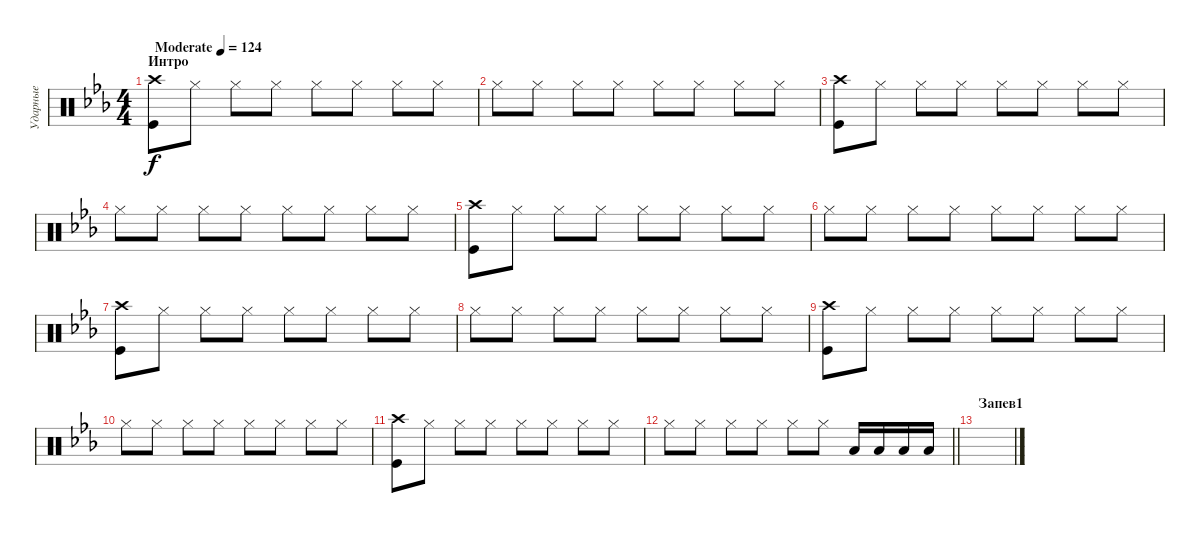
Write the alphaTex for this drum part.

\track ("Ударные" "Ударные") {instrument percussion}
\staff {score}
\articulation defaults
\ts (4 4)
\section ("" "Интро")
\tempo (124 "Moderate")
\clef neutral
\ks cminor
("Crash high (hit)" "Kick (hit)").8{dy f} "Hi-Hat (closed)".8 "Hi-Hat (closed)".8 "Hi-Hat (closed)".8 "Hi-Hat (closed)".8 "Hi-Hat (closed)".8 "Hi-Hat (closed)".8 "Hi-Hat (closed)".8 |
"Hi-Hat (closed)".8 "Hi-Hat (closed)".8 "Hi-Hat (closed)".8 "Hi-Hat (closed)".8 "Hi-Hat (closed)".8 "Hi-Hat (closed)".8 "Hi-Hat (closed)".8 "Hi-Hat (closed)".8 |
("Crash high (hit)" "Kick (hit)").8 "Hi-Hat (closed)".8 "Hi-Hat (closed)".8 "Hi-Hat (closed)".8 "Hi-Hat (closed)".8 "Hi-Hat (closed)".8 "Hi-Hat (closed)".8 "Hi-Hat (closed)".8 |
"Hi-Hat (closed)".8 "Hi-Hat (closed)".8 "Hi-Hat (closed)".8 "Hi-Hat (closed)".8 "Hi-Hat (closed)".8 "Hi-Hat (closed)".8 "Hi-Hat (closed)".8 "Hi-Hat (closed)".8 |
("Crash high (hit)" "Kick (hit)").8 "Hi-Hat (closed)".8 "Hi-Hat (closed)".8 "Hi-Hat (closed)".8 "Hi-Hat (closed)".8 "Hi-Hat (closed)".8 "Hi-Hat (closed)".8 "Hi-Hat (closed)".8 |
"Hi-Hat (closed)".8 "Hi-Hat (closed)".8 "Hi-Hat (closed)".8 "Hi-Hat (closed)".8 "Hi-Hat (closed)".8 "Hi-Hat (closed)".8 "Hi-Hat (closed)".8 "Hi-Hat (closed)".8 |
("Crash high (hit)" "Kick (hit)").8 "Hi-Hat (closed)".8 "Hi-Hat (closed)".8 "Hi-Hat (closed)".8 "Hi-Hat (closed)".8 "Hi-Hat (closed)".8 "Hi-Hat (closed)".8 "Hi-Hat (closed)".8 |
"Hi-Hat (closed)".8 "Hi-Hat (closed)".8 "Hi-Hat (closed)".8 "Hi-Hat (closed)".8 "Hi-Hat (closed)".8 "Hi-Hat (closed)".8 "Hi-Hat (closed)".8 "Hi-Hat (closed)".8 |
("Crash high (hit)" "Kick (hit)").8 "Hi-Hat (closed)".8 "Hi-Hat (closed)".8 "Hi-Hat (closed)".8 "Hi-Hat (closed)".8 "Hi-Hat (closed)".8 "Hi-Hat (closed)".8 "Hi-Hat (closed)".8 |
"Hi-Hat (closed)".8 "Hi-Hat (closed)".8 "Hi-Hat (closed)".8 "Hi-Hat (closed)".8 "Hi-Hat (closed)".8 "Hi-Hat (closed)".8 "Hi-Hat (closed)".8 "Hi-Hat (closed)".8 |
("Crash high (hit)" "Kick (hit)").8 "Hi-Hat (closed)".8 "Hi-Hat (closed)".8 "Hi-Hat (closed)".8 "Hi-Hat (closed)".8 "Hi-Hat (closed)".8 "Hi-Hat (closed)".8 "Hi-Hat (closed)".8 |
\barLineRight lightlight "Hi-Hat (closed)".8 "Hi-Hat (closed)".8 "Hi-Hat (closed)".8 "Hi-Hat (closed)".8 "Hi-Hat (closed)".8 "Hi-Hat (closed)".8 "Low Floor Tom (hit)".16 "Low Floor Tom (hit)".16 "Low Floor Tom (hit)".16 "Low Floor Tom (hit)".16
|
\section ("" "Запев1")
